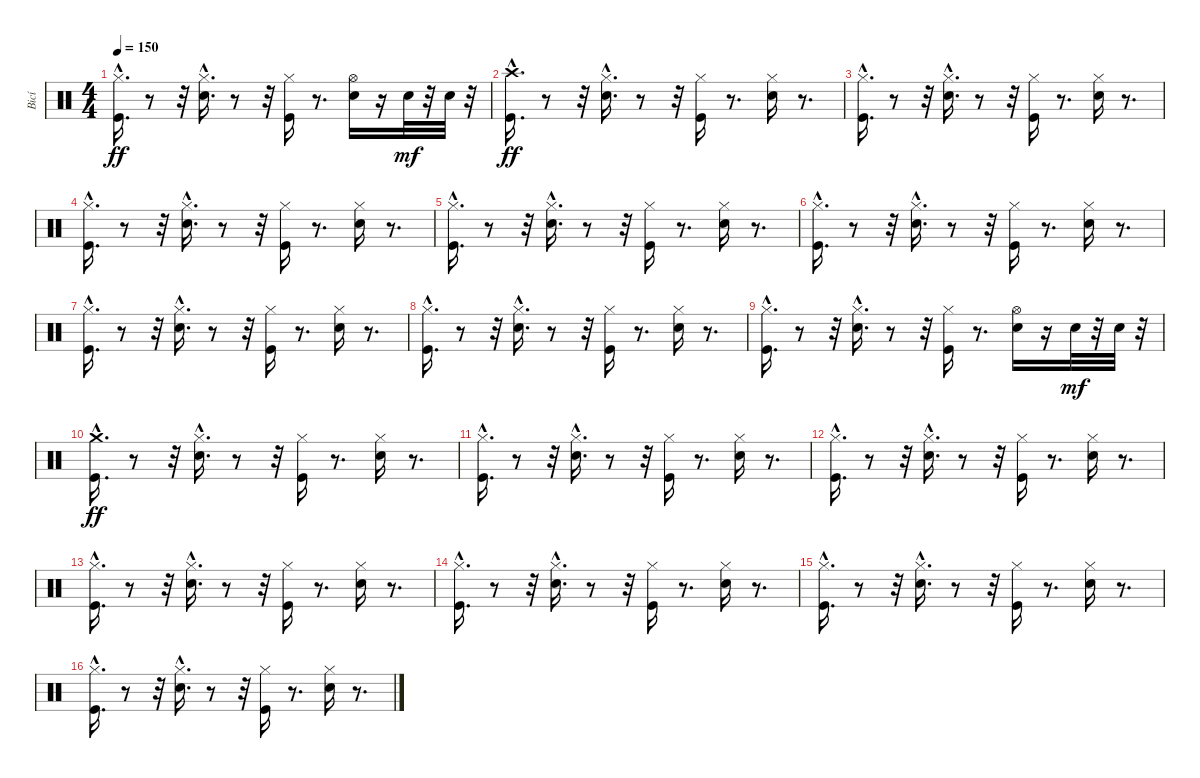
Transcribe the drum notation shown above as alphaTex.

\track ("Bicí" "Bicí") {instrument percussion}
\staff {score}
\articulation defaults
\ts (4 4)
\tempo 150
\clef neutral
\ks c
("Hi-Hat (closed)"{hac} "Kick (hit)").16{d dy ff} r.8 r.32 ("Hi-Hat (closed)"{hac} "Snare (hit) 2").16{d} r.8 r.32 ("Kick (hit)" "Hi-Hat (closed)").16 r.8{d} ("Snare (hit) 2" "Hi-Hat (open)").16 r.16 "Snare (hit) 2".32{dy mf} r.32 "Snare (hit) 2".32 r.32 |
("Crash high (hit)"{hac} "Kick (hit)").16{d dy ff} r.8 r.32 ("Hi-Hat (closed)"{hac} "Snare (hit) 2").16{d} r.8 r.32 ("Kick (hit)" "Hi-Hat (closed)").16 r.8{d} ("Snare (hit) 2" "Hi-Hat (closed)").16 r.8{d} |
("Hi-Hat (closed)"{hac} "Kick (hit)").16{d} r.8 r.32 ("Hi-Hat (closed)"{hac} "Snare (hit) 2").16{d} r.8 r.32 ("Kick (hit)" "Hi-Hat (closed)").16 r.8{d} ("Snare (hit) 2" "Hi-Hat (closed)").16 r.8{d} |
("Hi-Hat (closed)"{hac} "Kick (hit)").16{d} r.8 r.32 ("Hi-Hat (closed)"{hac} "Snare (hit) 2").16{d} r.8 r.32 ("Kick (hit)" "Hi-Hat (closed)").16 r.8{d} ("Snare (hit) 2" "Hi-Hat (closed)").16 r.8{d} |
("Hi-Hat (closed)"{hac} "Kick (hit)").16{d} r.8 r.32 ("Hi-Hat (closed)"{hac} "Snare (hit) 2").16{d} r.8 r.32 ("Kick (hit)" "Hi-Hat (closed)").16 r.8{d} ("Snare (hit) 2" "Hi-Hat (closed)").16 r.8{d} |
("Hi-Hat (closed)"{hac} "Kick (hit)").16{d} r.8 r.32 ("Hi-Hat (closed)"{hac} "Snare (hit) 2").16{d} r.8 r.32 ("Kick (hit)" "Hi-Hat (closed)").16 r.8{d} ("Snare (hit) 2" "Hi-Hat (closed)").16 r.8{d} |
("Hi-Hat (closed)"{hac} "Kick (hit)").16{d} r.8 r.32 ("Hi-Hat (closed)"{hac} "Snare (hit) 2").16{d} r.8 r.32 ("Kick (hit)" "Hi-Hat (closed)").16 r.8{d} ("Snare (hit) 2" "Hi-Hat (closed)").16 r.8{d} |
("Hi-Hat (closed)"{hac} "Kick (hit)").16{d} r.8 r.32 ("Hi-Hat (closed)"{hac} "Snare (hit) 2").16{d} r.8 r.32 ("Kick (hit)" "Hi-Hat (closed)").16 r.8{d} ("Snare (hit) 2" "Hi-Hat (closed)").16 r.8{d} |
("Hi-Hat (closed)"{hac} "Kick (hit)").16{d} r.8 r.32 ("Hi-Hat (closed)"{hac} "Snare (hit) 2").16{d} r.8 r.32 ("Kick (hit)" "Hi-Hat (closed)").16 r.8{d} ("Snare (hit) 2" "Hi-Hat (open)").16 r.16 "Snare (hit) 2".32{dy mf} r.32 "Snare (hit) 2".32 r.32 |
("Crash medium (hit)"{hac} "Kick (hit)").16{d dy ff} r.8 r.32 ("Hi-Hat (closed)"{hac} "Snare (hit) 2").16{d} r.8 r.32 ("Kick (hit)" "Hi-Hat (closed)").16 r.8{d} ("Snare (hit) 2" "Hi-Hat (closed)").16 r.8{d} |
("Hi-Hat (closed)"{hac} "Kick (hit)").16{d} r.8 r.32 ("Hi-Hat (closed)"{hac} "Snare (hit) 2").16{d} r.8 r.32 ("Kick (hit)" "Hi-Hat (closed)").16 r.8{d} ("Snare (hit) 2" "Hi-Hat (closed)").16 r.8{d} |
("Hi-Hat (closed)"{hac} "Kick (hit)").16{d} r.8 r.32 ("Hi-Hat (closed)"{hac} "Snare (hit) 2").16{d} r.8 r.32 ("Kick (hit)" "Hi-Hat (closed)").16 r.8{d} ("Snare (hit) 2" "Hi-Hat (closed)").16 r.8{d} |
("Hi-Hat (closed)"{hac} "Kick (hit)").16{d} r.8 r.32 ("Hi-Hat (closed)"{hac} "Snare (hit) 2").16{d} r.8 r.32 ("Kick (hit)" "Hi-Hat (closed)").16 r.8{d} ("Snare (hit) 2" "Hi-Hat (closed)").16 r.8{d} |
("Hi-Hat (closed)"{hac} "Kick (hit)").16{d} r.8 r.32 ("Hi-Hat (closed)"{hac} "Snare (hit) 2").16{d} r.8 r.32 ("Kick (hit)" "Hi-Hat (closed)").16 r.8{d} ("Snare (hit) 2" "Hi-Hat (closed)").16 r.8{d} |
("Hi-Hat (closed)"{hac} "Kick (hit)").16{d} r.8 r.32 ("Hi-Hat (closed)"{hac} "Snare (hit) 2").16{d} r.8 r.32 ("Kick (hit)" "Hi-Hat (closed)").16 r.8{d} ("Snare (hit) 2" "Hi-Hat (closed)").16 r.8{d} |
("Hi-Hat (closed)"{hac} "Kick (hit)").16{d} r.8 r.32 ("Hi-Hat (closed)"{hac} "Snare (hit) 2").16{d} r.8 r.32 ("Kick (hit)" "Hi-Hat (closed)").16 r.8{d} ("Snare (hit) 2" "Hi-Hat (closed)").16 r.8{d}
